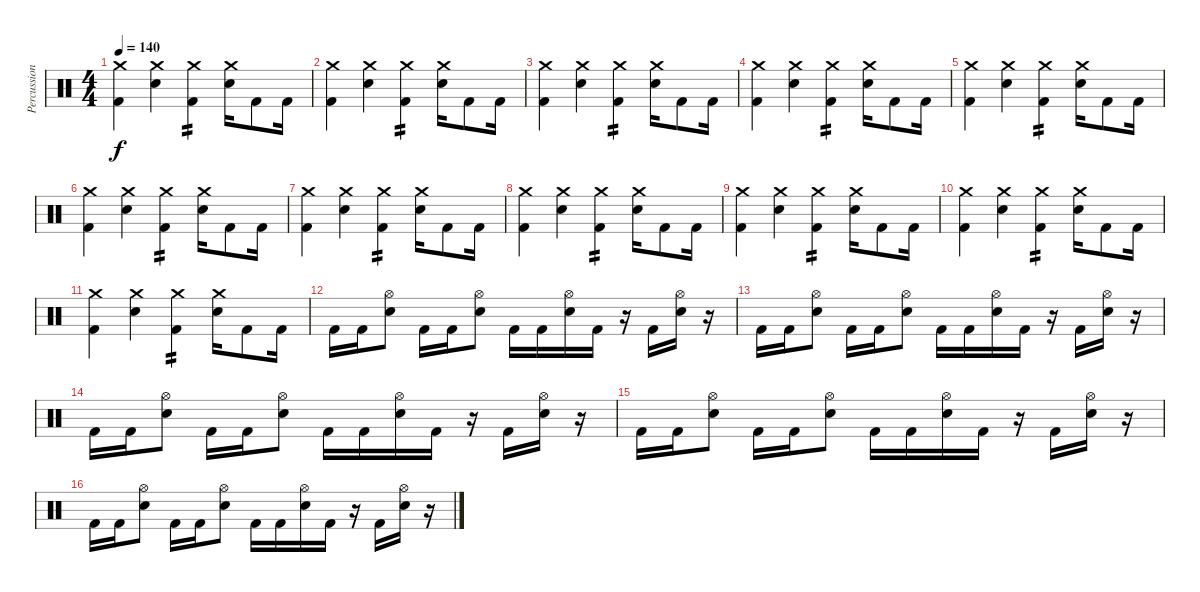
\track ("Percussions" "Percussion") {instrument percussion}
\staff {score}
\articulation defaults
\ts (4 4)
\tempo 140
\clef neutral
\ks c
("Crash medium (hit)" "Kick (hit) 2").4{dy f} ("Crash medium (hit)" "Snare (hit) 2").4 ("Crash medium (hit)" "Kick (hit) 2").4{tp 2} ("Crash medium (hit)" "Snare (hit) 2").16 "Kick (hit) 2".8 "Kick (hit) 2".16 |
("Crash medium (hit)" "Kick (hit) 2").4 ("Crash medium (hit)" "Snare (hit) 2").4 ("Crash medium (hit)" "Kick (hit) 2").4{tp 2} ("Crash medium (hit)" "Snare (hit) 2").16 "Kick (hit) 2".8 "Kick (hit) 2".16 |
("Crash medium (hit)" "Kick (hit) 2").4 ("Crash medium (hit)" "Snare (hit) 2").4 ("Crash medium (hit)" "Kick (hit) 2").4{tp 2} ("Crash medium (hit)" "Snare (hit) 2").16 "Kick (hit) 2".8 "Kick (hit) 2".16 |
("Crash medium (hit)" "Kick (hit) 2").4 ("Crash medium (hit)" "Snare (hit) 2").4 ("Crash medium (hit)" "Kick (hit) 2").4{tp 2} ("Crash medium (hit)" "Snare (hit) 2").16 "Kick (hit) 2".8 "Kick (hit) 2".16 |
("Crash medium (hit)" "Kick (hit) 2").4 ("Crash medium (hit)" "Snare (hit) 2").4 ("Crash medium (hit)" "Kick (hit) 2").4{tp 2} ("Crash medium (hit)" "Snare (hit) 2").16 "Kick (hit) 2".8 "Kick (hit) 2".16 |
("Crash medium (hit)" "Kick (hit) 2").4 ("Crash medium (hit)" "Snare (hit) 2").4 ("Crash medium (hit)" "Kick (hit) 2").4{tp 2} ("Crash medium (hit)" "Snare (hit) 2").16 "Kick (hit) 2".8 "Kick (hit) 2".16 |
("Crash medium (hit)" "Kick (hit) 2").4 ("Crash medium (hit)" "Snare (hit) 2").4 ("Crash medium (hit)" "Kick (hit) 2").4{tp 2} ("Crash medium (hit)" "Snare (hit) 2").16 "Kick (hit) 2".8 "Kick (hit) 2".16 |
("Crash medium (hit)" "Kick (hit) 2").4 ("Crash medium (hit)" "Snare (hit) 2").4 ("Crash medium (hit)" "Kick (hit) 2").4{tp 2} ("Crash medium (hit)" "Snare (hit) 2").16 "Kick (hit) 2".8 "Kick (hit) 2".16 |
("Crash medium (hit)" "Kick (hit) 2").4 ("Crash medium (hit)" "Snare (hit) 2").4 ("Crash medium (hit)" "Kick (hit) 2").4{tp 2} ("Crash medium (hit)" "Snare (hit) 2").16 "Kick (hit) 2".8 "Kick (hit) 2".16 |
("Crash medium (hit)" "Kick (hit) 2").4 ("Crash medium (hit)" "Snare (hit) 2").4 ("Crash medium (hit)" "Kick (hit) 2").4{tp 2} ("Crash medium (hit)" "Snare (hit) 2").16 "Kick (hit) 2".8 "Kick (hit) 2".16 |
("Crash medium (hit)" "Kick (hit) 2").4 ("Crash medium (hit)" "Snare (hit) 2").4 ("Crash medium (hit)" "Kick (hit) 2").4{tp 2} ("Crash medium (hit)" "Snare (hit) 2").16 "Kick (hit) 2".8 "Kick (hit) 2".16 |
"Kick (hit) 2".16 "Kick (hit) 2".16 ("Hi-Hat (open)" "Snare (hit) 2").8 "Kick (hit) 2".16 "Kick (hit) 2".16 ("Hi-Hat (open)" "Snare (hit) 2").8 "Kick (hit) 2".16 "Kick (hit) 2".16 ("Hi-Hat (open)" "Snare (hit) 2").16 "Kick (hit) 2".16 r.16 "Kick (hit) 2".16 ("Hi-Hat (open)" "Snare (hit) 2").16 r.16 |
"Kick (hit) 2".16 "Kick (hit) 2".16 ("Hi-Hat (open)" "Snare (hit) 2").8 "Kick (hit) 2".16 "Kick (hit) 2".16 ("Hi-Hat (open)" "Snare (hit) 2").8 "Kick (hit) 2".16 "Kick (hit) 2".16 ("Hi-Hat (open)" "Snare (hit) 2").16 "Kick (hit) 2".16 r.16 "Kick (hit) 2".16 ("Hi-Hat (open)" "Snare (hit) 2").16 r.16 |
"Kick (hit) 2".16 "Kick (hit) 2".16 ("Hi-Hat (open)" "Snare (hit) 2").8 "Kick (hit) 2".16 "Kick (hit) 2".16 ("Hi-Hat (open)" "Snare (hit) 2").8 "Kick (hit) 2".16 "Kick (hit) 2".16 ("Hi-Hat (open)" "Snare (hit) 2").16 "Kick (hit) 2".16 r.16 "Kick (hit) 2".16 ("Hi-Hat (open)" "Snare (hit) 2").16 r.16 |
"Kick (hit) 2".16 "Kick (hit) 2".16 ("Hi-Hat (open)" "Snare (hit) 2").8 "Kick (hit) 2".16 "Kick (hit) 2".16 ("Hi-Hat (open)" "Snare (hit) 2").8 "Kick (hit) 2".16 "Kick (hit) 2".16 ("Hi-Hat (open)" "Snare (hit) 2").16 "Kick (hit) 2".16 r.16 "Kick (hit) 2".16 ("Hi-Hat (open)" "Snare (hit) 2").16 r.16 |
"Kick (hit) 2".16 "Kick (hit) 2".16 ("Hi-Hat (open)" "Snare (hit) 2").8 "Kick (hit) 2".16 "Kick (hit) 2".16 ("Hi-Hat (open)" "Snare (hit) 2").8 "Kick (hit) 2".16 "Kick (hit) 2".16 ("Hi-Hat (open)" "Snare (hit) 2").16 "Kick (hit) 2".16 r.16 "Kick (hit) 2".16 ("Hi-Hat (open)" "Snare (hit) 2").16 r.16
